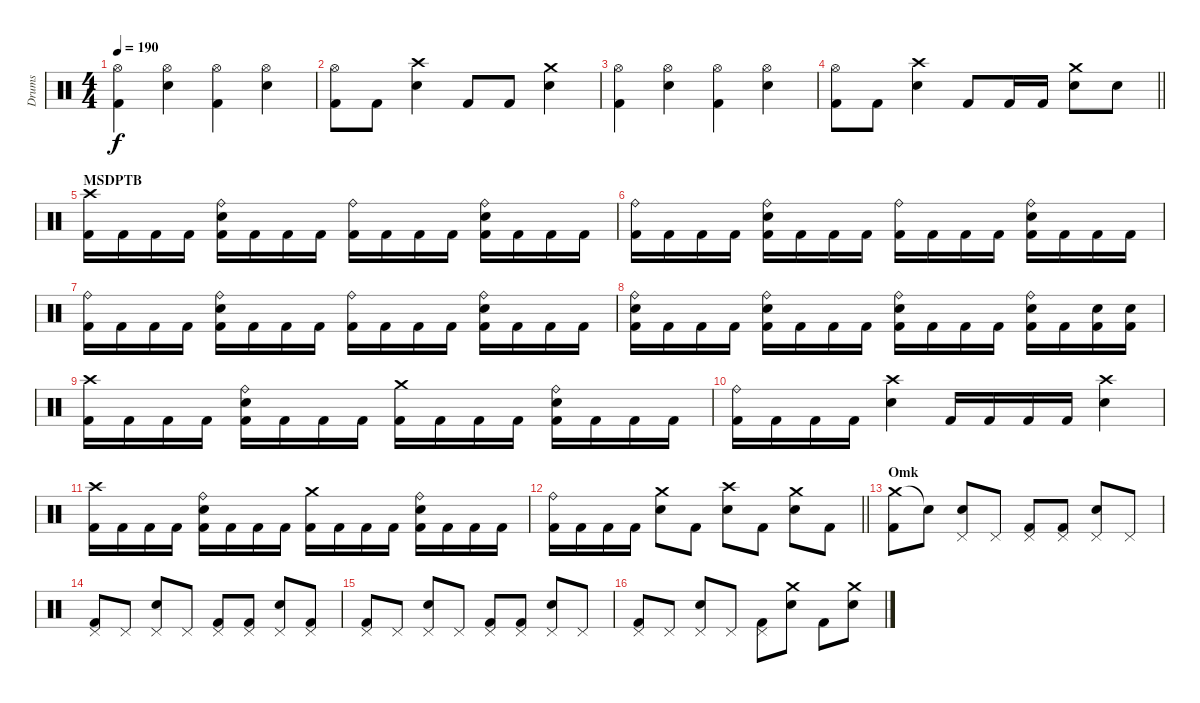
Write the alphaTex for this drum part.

\track ("Drums" "Drums") {instrument percussion}
\staff {score}
\articulation defaults
\ts (4 4)
\tempo 190
\clef neutral
\ks c
("Hi-Hat (open)" "Kick (hit) 2").4{dy f} ("Hi-Hat (open)" "Snare (hit) 2").4 ("Hi-Hat (open)" "Kick (hit) 2").4 ("Hi-Hat (open)" "Snare (hit) 2").4 |
("Hi-Hat (open)" "Kick (hit) 2").8 "Kick (hit) 2".8 ("Crash high (hit)" "Snare (hit) 2").4 "Kick (hit) 2".8 "Kick (hit) 2".8 ("Crash medium (hit)" "Snare (hit) 2").4 |
("Hi-Hat (open)" "Kick (hit) 2").4 ("Hi-Hat (open)" "Snare (hit) 2").4 ("Hi-Hat (open)" "Kick (hit) 2").4 ("Hi-Hat (open)" "Snare (hit) 2").4 |
\barLineRight lightlight
("Hi-Hat (open)" "Kick (hit) 2").8 "Kick (hit) 2".8 ("Crash high (hit)" "Snare (hit) 2").4 "Kick (hit) 2".8 "Kick (hit) 2".16 "Kick (hit) 2".16 ("Crash medium (hit)" "Snare (hit) 2").8 "Snare (hit) 2".8 |
\section ("" "MSDPTB")
("Crash high (hit)" "Kick (hit) 2").16 "Kick (hit) 2".16 "Kick (hit) 2".16 "Kick (hit) 2".16 ("Ride (bell)" "Snare (hit) 2" "Kick (hit) 2").16 "Kick (hit) 2".16 "Kick (hit) 2".16 "Kick (hit) 2".16 ("Ride (bell)" "Kick (hit) 2").16 "Kick (hit) 2".16 "Kick (hit) 2".16 "Kick (hit) 2".16 ("Ride (bell)" "Snare (hit) 2" "Kick (hit) 2").16 "Kick (hit) 2".16 "Kick (hit) 2".16 "Kick (hit) 2".16 |
("Ride (bell)" "Kick (hit) 2").16 "Kick (hit) 2".16 "Kick (hit) 2".16 "Kick (hit) 2".16 ("Ride (bell)" "Snare (hit) 2" "Kick (hit) 2").16 "Kick (hit) 2".16 "Kick (hit) 2".16 "Kick (hit) 2".16 ("Ride (bell)" "Kick (hit) 2").16 "Kick (hit) 2".16 "Kick (hit) 2".16 "Kick (hit) 2".16 ("Ride (bell)" "Snare (hit) 2" "Kick (hit) 2").16 "Kick (hit) 2".16 "Kick (hit) 2".16 "Kick (hit) 2".16 |
("Ride (bell)" "Kick (hit) 2").16 "Kick (hit) 2".16 "Kick (hit) 2".16 "Kick (hit) 2".16 ("Ride (bell)" "Snare (hit) 2" "Kick (hit) 2").16 "Kick (hit) 2".16 "Kick (hit) 2".16 "Kick (hit) 2".16 ("Ride (bell)" "Kick (hit) 2").16 "Kick (hit) 2".16 "Kick (hit) 2".16 "Kick (hit) 2".16 ("Ride (bell)" "Snare (hit) 2" "Kick (hit) 2").16 "Kick (hit) 2".16 "Kick (hit) 2".16 "Kick (hit) 2".16 |
("Ride (bell)" "Snare (hit) 2" "Kick (hit) 2").16 "Kick (hit) 2".16 "Kick (hit) 2".16 "Kick (hit) 2".16 ("Ride (bell)" "Snare (hit) 2" "Kick (hit) 2").16 "Kick (hit) 2".16 "Kick (hit) 2".16 "Kick (hit) 2".16 ("Ride (bell)" "Snare (hit) 2" "Kick (hit) 2").16 "Kick (hit) 2".16 "Kick (hit) 2".16 "Kick (hit) 2".16 ("Ride (bell)" "Snare (hit) 2" "Kick (hit) 2").16 "Kick (hit) 2".16 ("Snare (hit) 2" "Kick (hit) 2").16 ("Snare (hit) 2" "Kick (hit) 2").16 |
("Crash high (hit)" "Kick (hit) 2").16 "Kick (hit) 2".16 "Kick (hit) 2".16 "Kick (hit) 2".16 ("Ride (bell)" "Snare (hit) 2" "Kick (hit) 2").16 "Kick (hit) 2".16 "Kick (hit) 2".16 "Kick (hit) 2".16 ("Crash medium (hit)" "Kick (hit) 2").16 "Kick (hit) 2".16 "Kick (hit) 2".16 "Kick (hit) 2".16 ("Ride (bell)" "Snare (hit) 2" "Kick (hit) 2").16 "Kick (hit) 2".16 "Kick (hit) 2".16 "Kick (hit) 2".16 |
("Ride (bell)" "Kick (hit) 2").16 "Kick (hit) 2".16 "Kick (hit) 2".16 "Kick (hit) 2".16 ("Crash high (hit)" "Snare (hit) 2").4 "Kick (hit) 2".16 "Kick (hit) 2".16 "Kick (hit) 2".16 "Kick (hit) 2".16 ("Crash high (hit)" "Snare (hit) 2").4 |
("Crash high (hit)" "Kick (hit) 2").16 "Kick (hit) 2".16 "Kick (hit) 2".16 "Kick (hit) 2".16 ("Ride (bell)" "Snare (hit) 2" "Kick (hit) 2").16 "Kick (hit) 2".16 "Kick (hit) 2".16 "Kick (hit) 2".16 ("Crash medium (hit)" "Kick (hit) 2").16 "Kick (hit) 2".16 "Kick (hit) 2".16 "Kick (hit) 2".16 ("Ride (bell)" "Snare (hit) 2" "Kick (hit) 2").16 "Kick (hit) 2".16 "Kick (hit) 2".16 "Kick (hit) 2".16 |
\barLineRight lightlight
("Ride (bell)" "Kick (hit) 2").16 "Kick (hit) 2".16 "Kick (hit) 2".16 "Kick (hit) 2".16 ("Crash medium (hit)" "Snare (hit) 2").8 "Kick (hit) 2".8 ("Crash high (hit)" "Snare (hit) 2").8 "Kick (hit) 2".8 ("Crash medium (hit)" "Snare (hit) 2").8 "Kick (hit) 2".8 |
\section ("" "Omk")
("Crash medium (hit)" "Kick (hit) 2").8 "Snare (hit)"{t}.8 ("Pedal Hi-Hat (hit)" "Snare (hit) 2").8 "Pedal Hi-Hat (hit)".8 ("Pedal Hi-Hat (hit)" "Kick (hit) 2").8 ("Pedal Hi-Hat (hit)" "Kick (hit) 2").8 ("Pedal Hi-Hat (hit)" "Snare (hit) 2").8 "Pedal Hi-Hat (hit)".8 |
("Pedal Hi-Hat (hit)" "Kick (hit) 2").8 "Pedal Hi-Hat (hit)".8 ("Pedal Hi-Hat (hit)" "Snare (hit) 2").8 "Pedal Hi-Hat (hit)".8 ("Pedal Hi-Hat (hit)" "Kick (hit) 2").8 ("Pedal Hi-Hat (hit)" "Kick (hit) 2").8 ("Pedal Hi-Hat (hit)" "Snare (hit) 2").8 ("Pedal Hi-Hat (hit)" "Kick (hit) 2").8 |
("Pedal Hi-Hat (hit)" "Kick (hit) 2").8 "Pedal Hi-Hat (hit)".8 ("Pedal Hi-Hat (hit)" "Snare (hit) 2").8 "Pedal Hi-Hat (hit)".8 ("Pedal Hi-Hat (hit)" "Kick (hit) 2").8 ("Pedal Hi-Hat (hit)" "Kick (hit) 2").8 ("Pedal Hi-Hat (hit)" "Snare (hit) 2").8 "Pedal Hi-Hat (hit)".8 |
("Pedal Hi-Hat (hit)" "Kick (hit) 2").8 "Pedal Hi-Hat (hit)".8 ("Pedal Hi-Hat (hit)" "Snare (hit) 2").8 "Pedal Hi-Hat (hit)".8 ("Pedal Hi-Hat (hit)" "Kick (hit) 2").8 ("Crash medium (hit)" "Snare (hit) 2").8 "Kick (hit) 2".8 ("Crash medium (hit)" "Snare (hit) 2").8
